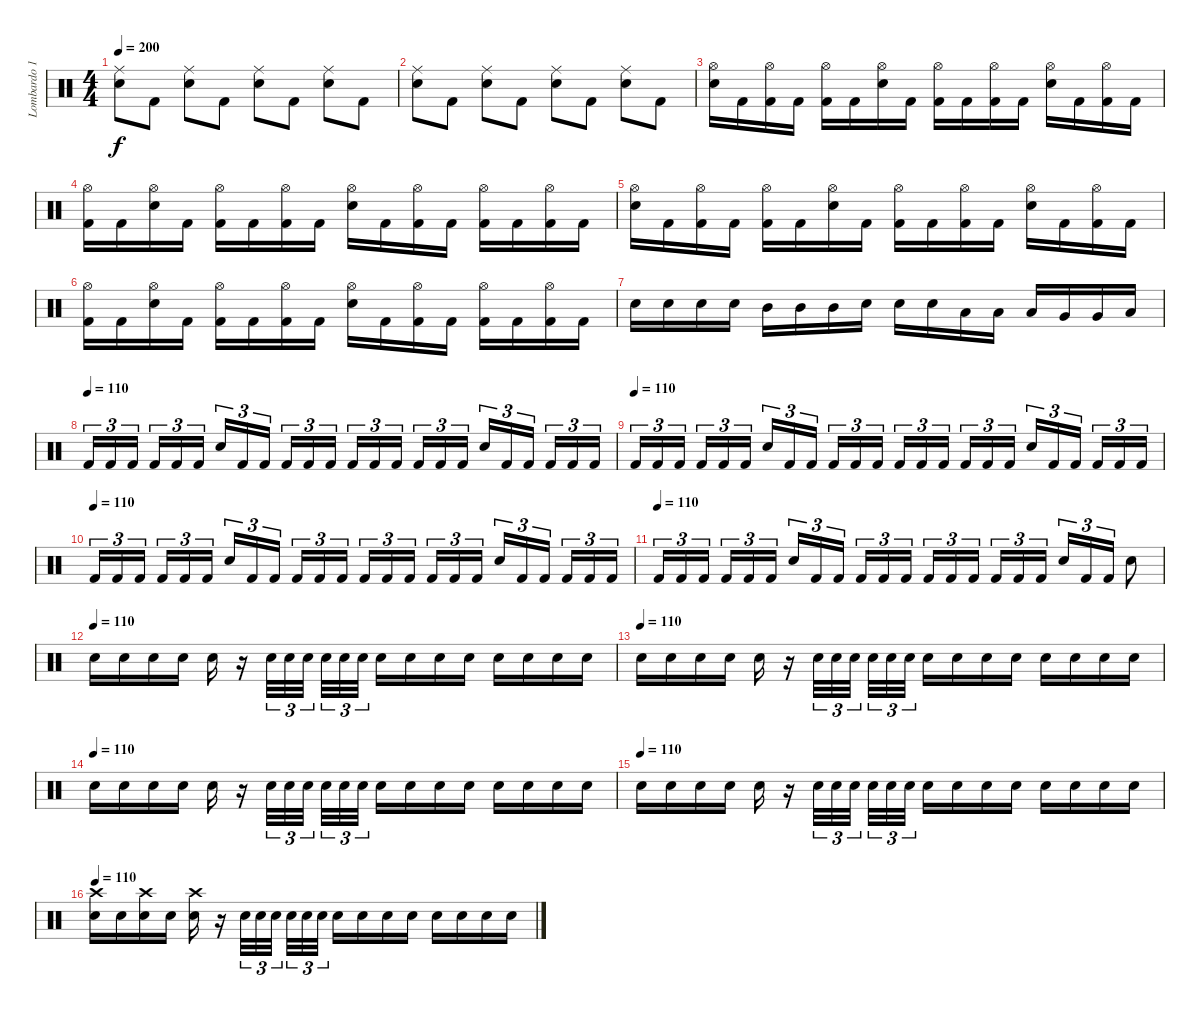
\track ("Lombardo 1" "Lombardo 1") {instrument percussion}
\staff {score}
\articulation defaults
\ts (4 4)
\tempo 200
\clef neutral
\ks c
("Ride (middle)" "Electric Snare (hit)").8{dy f} "Kick (hit) 2".8 ("Ride (middle)" "Electric Snare (hit)").8 "Kick (hit) 2".8 ("Ride (middle)" "Electric Snare (hit)").8 "Kick (hit) 2".8 ("Ride (middle)" "Electric Snare (hit)").8 "Kick (hit) 2".8 |
("Ride (middle)" "Electric Snare (hit)").8 "Kick (hit) 2".8 ("Ride (middle)" "Electric Snare (hit)").8 "Kick (hit) 2".8 ("Ride (middle)" "Electric Snare (hit)").8 "Kick (hit) 2".8 ("Ride (middle)" "Electric Snare (hit)").8 "Kick (hit) 2".8 |
("Hi-Hat (open)" "Electric Snare (hit)").16 "Kick (hit) 2".16 ("Hi-Hat (open)" "Kick (hit) 2").16 "Kick (hit) 2".16 ("Hi-Hat (open)" "Kick (hit) 2").16 "Kick (hit) 2".16 ("Hi-Hat (open)" "Electric Snare (hit)").16 "Kick (hit) 2".16 ("Hi-Hat (open)" "Kick (hit) 2").16 "Kick (hit) 2".16 ("Hi-Hat (open)" "Kick (hit) 2").16 "Kick (hit) 2".16 ("Hi-Hat (open)" "Electric Snare (hit)").16 "Kick (hit) 2".16 ("Hi-Hat (open)" "Kick (hit) 2").16 "Kick (hit) 2".16 |
("Hi-Hat (open)" "Kick (hit) 2").16 "Kick (hit) 2".16 ("Hi-Hat (open)" "Electric Snare (hit)").16 "Kick (hit) 2".16 ("Hi-Hat (open)" "Kick (hit) 2").16 "Kick (hit) 2".16 ("Hi-Hat (open)" "Kick (hit) 2").16 "Kick (hit) 2".16 ("Hi-Hat (open)" "Electric Snare (hit)").16 "Kick (hit) 2".16 ("Hi-Hat (open)" "Kick (hit) 2").16 "Kick (hit) 2".16 ("Hi-Hat (open)" "Kick (hit) 2").16 "Kick (hit) 2".16 ("Hi-Hat (open)" "Kick (hit) 2").16 "Kick (hit) 2".16 |
("Hi-Hat (open)" "Electric Snare (hit)").16 "Kick (hit) 2".16 ("Hi-Hat (open)" "Kick (hit) 2").16 "Kick (hit) 2".16 ("Hi-Hat (open)" "Kick (hit) 2").16 "Kick (hit) 2".16 ("Hi-Hat (open)" "Electric Snare (hit)").16 "Kick (hit) 2".16 ("Hi-Hat (open)" "Kick (hit) 2").16 "Kick (hit) 2".16 ("Hi-Hat (open)" "Kick (hit) 2").16 "Kick (hit) 2".16 ("Hi-Hat (open)" "Electric Snare (hit)").16 "Kick (hit) 2".16 ("Hi-Hat (open)" "Kick (hit) 2").16 "Kick (hit) 2".16 |
("Hi-Hat (open)" "Kick (hit) 2").16 "Kick (hit) 2".16 ("Hi-Hat (open)" "Electric Snare (hit)").16 "Kick (hit) 2".16 ("Hi-Hat (open)" "Kick (hit) 2").16 "Kick (hit) 2".16 ("Hi-Hat (open)" "Kick (hit) 2").16 "Kick (hit) 2".16 ("Hi-Hat (open)" "Electric Snare (hit)").16 "Kick (hit) 2".16 ("Hi-Hat (open)" "Kick (hit) 2").16 "Kick (hit) 2".16 ("Hi-Hat (open)" "Kick (hit) 2").16 "Kick (hit) 2".16 ("Hi-Hat (open)" "Kick (hit) 2").16 "Kick (hit) 2".16 |
"Electric Snare (hit)".16 "Electric Snare (hit)".16 "Electric Snare (hit)".16 "Electric Snare (hit)".16 "Mid Tom (hit)".16 "Mid Tom (hit)".16 "Mid Tom (hit)".16 "Electric Snare (hit)".16 "Electric Snare (hit)".16 "Electric Snare (hit)".16 "Low Tom (hit)".16 "Low Tom (hit)".16 "Low Tom (hit)".16 "Very Low Tom (hit)".16 "Very Low Tom (hit)".16 "Low Floor Tom (hit)".16 |
\tempo (110)
"Kick (hit) 2".16{tu (3 2)} "Kick (hit) 2".16{tu (3 2)} "Kick (hit) 2".16{tu (3 2) beam splitsecondary} "Kick (hit) 2".16{tu (3 2)} "Kick (hit) 2".16{tu (3 2)} "Kick (hit) 2".16{tu (3 2)} "Electric Snare (hit)".16{tu (3 2)} "Kick (hit) 2".16{tu (3 2)} "Kick (hit) 2".16{tu (3 2) beam splitsecondary} "Kick (hit) 2".16{tu (3 2)} "Kick (hit) 2".16{tu (3 2)} "Kick (hit) 2".16{tu (3 2)} "Kick (hit) 2".16{tu (3 2)} "Kick (hit) 2".16{tu (3 2)} "Kick (hit) 2".16{tu (3 2) beam splitsecondary} "Kick (hit) 2".16{tu (3 2)} "Kick (hit) 2".16{tu (3 2)} "Kick (hit) 2".16{tu (3 2)} "Electric Snare (hit)".16{tu (3 2)} "Kick (hit) 2".16{tu (3 2)} "Kick (hit) 2".16{tu (3 2) beam splitsecondary} "Kick (hit) 2".16{tu (3 2)} "Kick (hit) 2".16{tu (3 2)} "Kick (hit) 2".16{tu (3 2)} |
\tempo (110)
"Kick (hit) 2".16{tu (3 2)} "Kick (hit) 2".16{tu (3 2)} "Kick (hit) 2".16{tu (3 2) beam splitsecondary} "Kick (hit) 2".16{tu (3 2)} "Kick (hit) 2".16{tu (3 2)} "Kick (hit) 2".16{tu (3 2)} "Electric Snare (hit)".16{tu (3 2)} "Kick (hit) 2".16{tu (3 2)} "Kick (hit) 2".16{tu (3 2) beam splitsecondary} "Kick (hit) 2".16{tu (3 2)} "Kick (hit) 2".16{tu (3 2)} "Kick (hit) 2".16{tu (3 2)} "Kick (hit) 2".16{tu (3 2)} "Kick (hit) 2".16{tu (3 2)} "Kick (hit) 2".16{tu (3 2) beam splitsecondary} "Kick (hit) 2".16{tu (3 2)} "Kick (hit) 2".16{tu (3 2)} "Kick (hit) 2".16{tu (3 2)} "Electric Snare (hit)".16{tu (3 2)} "Kick (hit) 2".16{tu (3 2)} "Kick (hit) 2".16{tu (3 2) beam splitsecondary} "Kick (hit) 2".16{tu (3 2)} "Kick (hit) 2".16{tu (3 2)} "Kick (hit) 2".16{tu (3 2)} |
\tempo (110)
"Kick (hit) 2".16{tu (3 2)} "Kick (hit) 2".16{tu (3 2)} "Kick (hit) 2".16{tu (3 2) beam splitsecondary} "Kick (hit) 2".16{tu (3 2)} "Kick (hit) 2".16{tu (3 2)} "Kick (hit) 2".16{tu (3 2)} "Electric Snare (hit)".16{tu (3 2)} "Kick (hit) 2".16{tu (3 2)} "Kick (hit) 2".16{tu (3 2) beam splitsecondary} "Kick (hit) 2".16{tu (3 2)} "Kick (hit) 2".16{tu (3 2)} "Kick (hit) 2".16{tu (3 2)} "Kick (hit) 2".16{tu (3 2)} "Kick (hit) 2".16{tu (3 2)} "Kick (hit) 2".16{tu (3 2) beam splitsecondary} "Kick (hit) 2".16{tu (3 2)} "Kick (hit) 2".16{tu (3 2)} "Kick (hit) 2".16{tu (3 2)} "Electric Snare (hit)".16{tu (3 2)} "Kick (hit) 2".16{tu (3 2)} "Kick (hit) 2".16{tu (3 2) beam splitsecondary} "Kick (hit) 2".16{tu (3 2)} "Kick (hit) 2".16{tu (3 2)} "Kick (hit) 2".16{tu (3 2)} |
\tempo (110)
"Kick (hit) 2".16{tu (3 2)} "Kick (hit) 2".16{tu (3 2)} "Kick (hit) 2".16{tu (3 2) beam splitsecondary} "Kick (hit) 2".16{tu (3 2)} "Kick (hit) 2".16{tu (3 2)} "Kick (hit) 2".16{tu (3 2)} "Electric Snare (hit)".16{tu (3 2)} "Kick (hit) 2".16{tu (3 2)} "Kick (hit) 2".16{tu (3 2) beam splitsecondary} "Kick (hit) 2".16{tu (3 2)} "Kick (hit) 2".16{tu (3 2)} "Kick (hit) 2".16{tu (3 2)} "Kick (hit) 2".16{tu (3 2)} "Kick (hit) 2".16{tu (3 2)} "Kick (hit) 2".16{tu (3 2) beam splitsecondary} "Kick (hit) 2".16{tu (3 2)} "Kick (hit) 2".16{tu (3 2)} "Kick (hit) 2".16{tu (3 2)} "Electric Snare (hit)".16{tu (3 2)} "Kick (hit) 2".16{tu (3 2)} "Kick (hit) 2".16{tu (3 2)} "Electric Snare (hit)".8 |
\tempo (110)
"Electric Snare (hit)".16 "Electric Snare (hit)".16 "Electric Snare (hit)".16 "Electric Snare (hit)".16 "Electric Snare (hit)".16 r.16 "Electric Snare (hit)".32{tu (3 2)} "Electric Snare (hit)".32{tu (3 2)} "Electric Snare (hit)".32{tu (3 2) beam splitsecondary} "Electric Snare (hit)".32{tu (3 2)} "Electric Snare (hit)".32{tu (3 2)} "Electric Snare (hit)".32{tu (3 2)} "Electric Snare (hit)".16 "Electric Snare (hit)".16 "Electric Snare (hit)".16 "Electric Snare (hit)".16 "Electric Snare (hit)".16 "Electric Snare (hit)".16 "Electric Snare (hit)".16 "Electric Snare (hit)".16 |
\tempo (110)
"Electric Snare (hit)".16 "Electric Snare (hit)".16 "Electric Snare (hit)".16 "Electric Snare (hit)".16 "Electric Snare (hit)".16 r.16 "Electric Snare (hit)".32{tu (3 2)} "Electric Snare (hit)".32{tu (3 2)} "Electric Snare (hit)".32{tu (3 2) beam splitsecondary} "Electric Snare (hit)".32{tu (3 2)} "Electric Snare (hit)".32{tu (3 2)} "Electric Snare (hit)".32{tu (3 2)} "Electric Snare (hit)".16 "Electric Snare (hit)".16 "Electric Snare (hit)".16 "Electric Snare (hit)".16 "Electric Snare (hit)".16 "Electric Snare (hit)".16 "Electric Snare (hit)".16 "Electric Snare (hit)".16 |
\tempo (110)
"Electric Snare (hit)".16 "Electric Snare (hit)".16 "Electric Snare (hit)".16 "Electric Snare (hit)".16 "Electric Snare (hit)".16 r.16 "Electric Snare (hit)".32{tu (3 2)} "Electric Snare (hit)".32{tu (3 2)} "Electric Snare (hit)".32{tu (3 2) beam splitsecondary} "Electric Snare (hit)".32{tu (3 2)} "Electric Snare (hit)".32{tu (3 2)} "Electric Snare (hit)".32{tu (3 2)} "Electric Snare (hit)".16 "Electric Snare (hit)".16 "Electric Snare (hit)".16 "Electric Snare (hit)".16 "Electric Snare (hit)".16 "Electric Snare (hit)".16 "Electric Snare (hit)".16 "Electric Snare (hit)".16 |
\tempo (110)
"Electric Snare (hit)".16 "Electric Snare (hit)".16 "Electric Snare (hit)".16 "Electric Snare (hit)".16 "Electric Snare (hit)".16 r.16 "Electric Snare (hit)".32{tu (3 2)} "Electric Snare (hit)".32{tu (3 2)} "Electric Snare (hit)".32{tu (3 2) beam splitsecondary} "Electric Snare (hit)".32{tu (3 2)} "Electric Snare (hit)".32{tu (3 2)} "Electric Snare (hit)".32{tu (3 2)} "Electric Snare (hit)".16 "Electric Snare (hit)".16 "Electric Snare (hit)".16 "Electric Snare (hit)".16 "Electric Snare (hit)".16 "Electric Snare (hit)".16 "Electric Snare (hit)".16 "Electric Snare (hit)".16 |
\tempo 110
("Crash high (hit)" "Electric Snare (hit)").16 "Electric Snare (hit)".16 ("Crash high (hit)" "Electric Snare (hit)").16 "Electric Snare (hit)".16 ("Crash high (hit)" "Electric Snare (hit)").16 r.16 "Electric Snare (hit)".32{tu (3 2)} "Electric Snare (hit)".32{tu (3 2)} "Electric Snare (hit)".32{tu (3 2) beam splitsecondary} "Electric Snare (hit)".32{tu (3 2)} "Electric Snare (hit)".32{tu (3 2)} "Electric Snare (hit)".32{tu (3 2)} "Electric Snare (hit)".16 "Electric Snare (hit)".16 "Electric Snare (hit)".16 "Electric Snare (hit)".16 "Electric Snare (hit)".16 "Electric Snare (hit)".16 "Electric Snare (hit)".16 "Electric Snare (hit)".16
